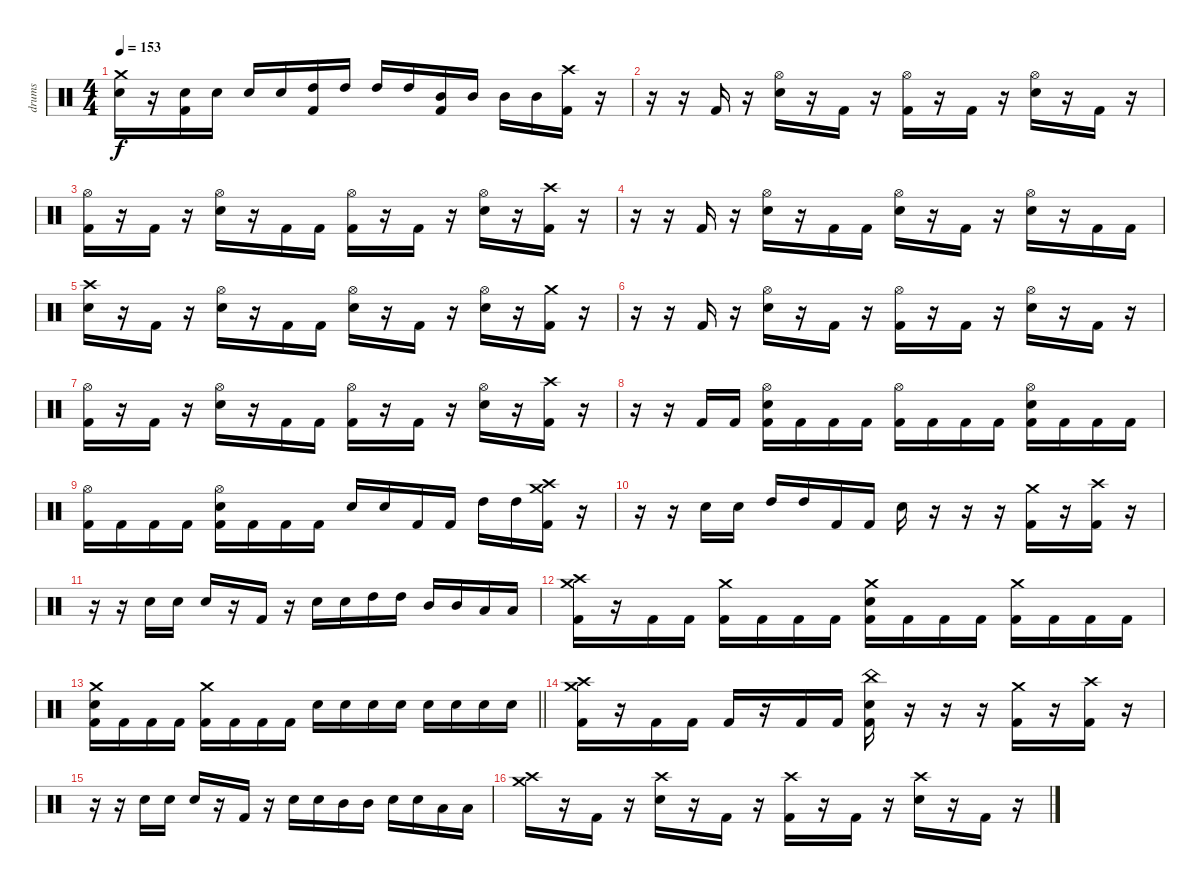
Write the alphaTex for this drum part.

\track ("drums" "drums") {instrument percussion}
\staff {score}
\articulation defaults
\ts (4 4)
\tempo 153
\clef neutral
\ks c
("Crash medium (hit)" "Electric Snare (hit)").16{dy f} r.16 ("Electric Snare (hit)" "Kick (hit) 2").16 "Electric Snare (hit)".16 "Electric Snare (hit)".16 "Electric Snare (hit)".16 ("High Tom (hit)" "Kick (hit) 2").16 "High Tom (hit)".16 "High Tom (hit)".16 "High Tom (hit)".16 ("Mid Tom (hit)" "Kick (hit) 2").16 "Mid Tom (hit)".16 "Mid Tom (hit)".16 "Mid Tom (hit)".16 ("Crash high (hit)" "Kick (hit) 2").16 r.16 |
r.16 r.16 "Kick (hit) 2".16 r.16 ("Hi-Hat (open)" "Electric Snare (hit)").16 r.16 "Kick (hit) 2".16 r.16 ("Hi-Hat (open)" "Kick (hit) 2").16 r.16 "Kick (hit) 2".16 r.16 ("Hi-Hat (open)" "Electric Snare (hit)").16 r.16 "Kick (hit) 2".16 r.16 |
("Hi-Hat (open)" "Kick (hit) 2").16 r.16 "Kick (hit) 2".16 r.16 ("Hi-Hat (open)" "Electric Snare (hit)").16 r.16 "Kick (hit) 2".16 "Kick (hit) 2".16 ("Hi-Hat (open)" "Kick (hit) 2").16 r.16 "Kick (hit) 2".16 r.16 ("Hi-Hat (open)" "Electric Snare (hit)").16 r.16 ("Crash high (hit)" "Kick (hit) 2").16 r.16 |
r.16 r.16 "Kick (hit) 2".16 r.16 ("Hi-Hat (open)" "Electric Snare (hit)").16 r.16 "Kick (hit) 2".16 "Kick (hit) 2".16 ("Hi-Hat (open)" "Electric Snare (hit)").16 r.16 "Kick (hit) 2".16 r.16 ("Hi-Hat (open)" "Electric Snare (hit)").16 r.16 "Kick (hit) 2".16 "Kick (hit) 2".16 |
("Crash high (hit)" "Electric Snare (hit)").16 r.16 "Kick (hit) 2".16 r.16 ("Hi-Hat (open)" "Electric Snare (hit)").16 r.16 "Kick (hit) 2".16 "Kick (hit) 2".16 ("Hi-Hat (open)" "Electric Snare (hit)").16 r.16 "Kick (hit) 2".16 r.16 ("Hi-Hat (open)" "Electric Snare (hit)").16 r.16 ("Crash medium (hit)" "Kick (hit) 2").16 r.16 |
r.16 r.16 "Kick (hit) 2".16 r.16 ("Hi-Hat (open)" "Electric Snare (hit)").16 r.16 "Kick (hit) 2".16 r.16 ("Hi-Hat (open)" "Kick (hit) 2").16 r.16 "Kick (hit) 2".16 r.16 ("Hi-Hat (open)" "Electric Snare (hit)").16 r.16 "Kick (hit) 2".16 r.16 |
("Hi-Hat (open)" "Kick (hit) 2").16 r.16 "Kick (hit) 2".16 r.16 ("Hi-Hat (open)" "Electric Snare (hit)").16 r.16 "Kick (hit) 2".16 "Kick (hit) 2".16 ("Hi-Hat (open)" "Kick (hit) 2").16 r.16 "Kick (hit) 2".16 r.16 ("Hi-Hat (open)" "Electric Snare (hit)").16 r.16 ("Crash high (hit)" "Kick (hit) 2").16 r.16 |
r.16 r.16 "Kick (hit) 2".16 "Kick (hit) 2".16 ("Hi-Hat (open)" "Electric Snare (hit)" "Kick (hit) 2").16 "Kick (hit) 2".16 "Kick (hit) 2".16 "Kick (hit) 2".16 ("Hi-Hat (open)" "Kick (hit) 2").16 "Kick (hit) 2".16 "Kick (hit) 2".16 "Kick (hit) 2".16 ("Hi-Hat (open)" "Electric Snare (hit)" "Kick (hit) 2").16 "Kick (hit) 2".16 "Kick (hit) 2".16 "Kick (hit) 2".16 |
("Hi-Hat (open)" "Kick (hit) 2").16 "Kick (hit) 2".16 "Kick (hit) 2".16 "Kick (hit) 2".16 ("Hi-Hat (open)" "Electric Snare (hit)" "Kick (hit) 2").16 "Kick (hit) 2".16 "Kick (hit) 2".16 "Kick (hit) 2".16 "Electric Snare (hit)".16 "Electric Snare (hit)".16 "Kick (hit) 2".16 "Kick (hit) 2".16 "High Tom (hit)".16 "High Tom (hit)".16 ("Crash medium (hit)" "Crash high (hit)" "Kick (hit) 2").16 r.16 |
r.16 r.16 "Electric Snare (hit)".16 "Electric Snare (hit)".16 "High Tom (hit)".16 "High Tom (hit)".16 "Kick (hit) 2".16 "Kick (hit) 2".16 "Electric Snare (hit)".16 r.16 r.16 r.16 ("Crash medium (hit)" "Kick (hit) 2").16 r.16 ("Crash high (hit)" "Kick (hit) 2").16 r.16 |
r.16 r.16 "Electric Snare (hit)".16 "Electric Snare (hit)".16 "Electric Snare (hit)".16 r.16 "Kick (hit) 2".16 r.16 "Electric Snare (hit)".16 "Electric Snare (hit)".16 "High Tom (hit)".16 "High Tom (hit)".16 "Mid Tom (hit)".16 "Mid Tom (hit)".16 "Low Floor Tom (hit)".16 "Low Floor Tom (hit)".16 |
("Crash medium (hit)" "Crash high (hit)" "Kick (hit) 2").16 r.16 "Kick (hit) 2".16 "Kick (hit) 2".16 ("Crash medium (hit)" "Kick (hit) 2").16 "Kick (hit) 2".16 "Kick (hit) 2".16 "Kick (hit) 2".16 ("Crash medium (hit)" "Electric Snare (hit)" "Kick (hit) 2").16 "Kick (hit) 2".16 "Kick (hit) 2".16 "Kick (hit) 2".16 ("Crash medium (hit)" "Kick (hit) 2").16 "Kick (hit) 2".16 "Kick (hit) 2".16 "Kick (hit) 2".16 |
\barLineRight lightlight
("Crash medium (hit)" "Electric Snare (hit)" "Kick (hit) 2").16 "Kick (hit) 2".16 "Kick (hit) 2".16 "Kick (hit) 2".16 ("Crash medium (hit)" "Kick (hit) 2").16 "Kick (hit) 2".16 "Kick (hit) 2".16 "Kick (hit) 2".16 "Electric Snare (hit)".16 "Electric Snare (hit)".16 "Electric Snare (hit)".16 "Electric Snare (hit)".16 "Electric Snare (hit)".16 "Electric Snare (hit)".16 "Electric Snare (hit)".16 "Electric Snare (hit)".16 |
("Crash medium (hit)" "Crash high (hit)" "Kick (hit) 2").16 r.16 "Kick (hit) 2".16 "Kick (hit) 2".16 "Kick (hit) 2".16 r.16 "Kick (hit) 2".16 "Kick (hit) 2".16 ("China (hit)" "Electric Snare (hit)" "Kick (hit) 2").16 r.16 r.16 r.16 ("Crash medium (hit)" "Kick (hit) 2").16 r.16 ("Crash high (hit)" "Kick (hit) 2").16 r.16 |
r.16 r.16 "Electric Snare (hit)".16 "Electric Snare (hit)".16 "Electric Snare (hit)".16 r.16 "Kick (hit) 2".16 r.16 "Electric Snare (hit)".16 "Electric Snare (hit)".16 "Mid Tom (hit)".16 "Mid Tom (hit)".16 "Electric Snare (hit)".16 "Electric Snare (hit)".16 "Low Floor Tom (hit)".16 "Low Floor Tom (hit)".16 |
("Crash medium (hit)" "Crash high (hit)").16 r.16 "Kick (hit) 2".16 r.16 ("Crash high (hit)" "Electric Snare (hit)").16 r.16 "Kick (hit) 2".16 r.16 ("Crash high (hit)" "Kick (hit) 2").16 r.16 "Kick (hit) 2".16 r.16 ("Crash high (hit)" "Electric Snare (hit)").16 r.16 "Kick (hit) 2".16 r.16
